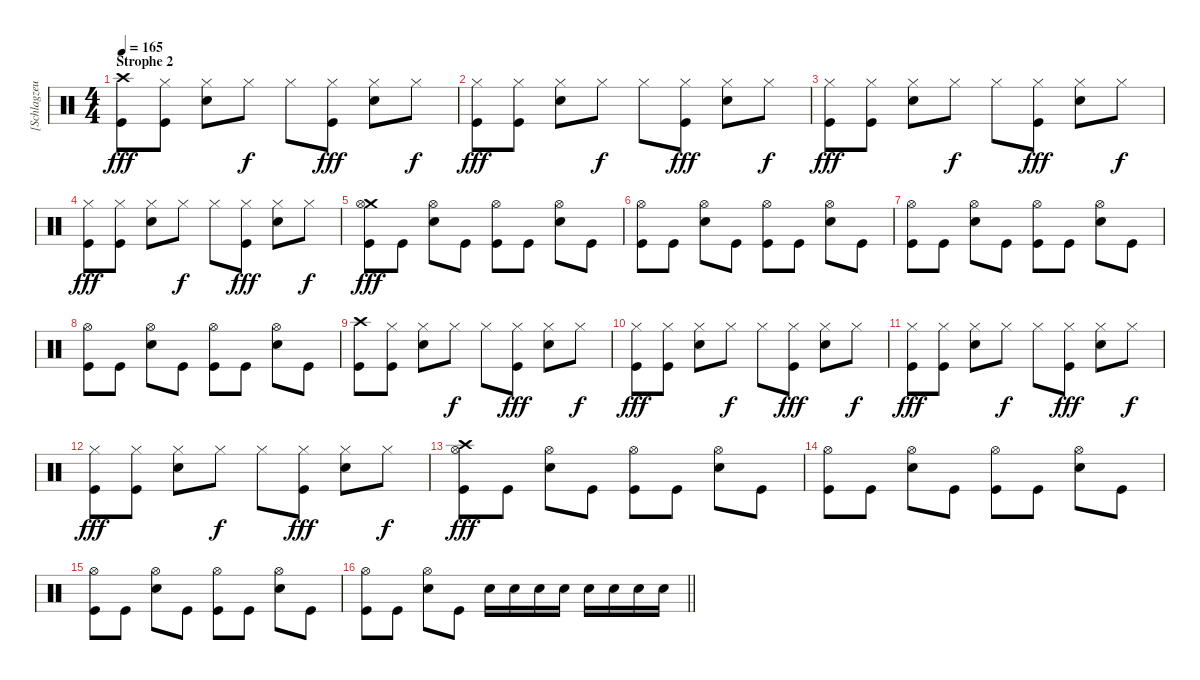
\track ("[Schlagzeug]" "[Schlagzeu") {instrument percussion}
\staff {score}
\articulation defaults
\ts (4 4)
\section ("" "Strophe 2")
\tempo 165
\clef neutral
\ks c
("Crash high (hit)" "Kick (hit)").8{dy fff} ("Hi-Hat (closed)" "Kick (hit)").8 ("Hi-Hat (closed)" "Electric Snare (hit)").8 "Hi-Hat (closed)".8{dy f} "Hi-Hat (closed)".8 ("Hi-Hat (closed)" "Kick (hit)").8{dy fff} ("Hi-Hat (closed)" "Electric Snare (hit)").8 "Hi-Hat (closed)".8{dy f} |
("Hi-Hat (closed)" "Kick (hit)").8{dy fff} ("Hi-Hat (closed)" "Kick (hit)").8 ("Hi-Hat (closed)" "Electric Snare (hit)").8 "Hi-Hat (closed)".8{dy f} "Hi-Hat (closed)".8 ("Hi-Hat (closed)" "Kick (hit)").8{dy fff} ("Hi-Hat (closed)" "Electric Snare (hit)").8 "Hi-Hat (closed)".8{dy f} |
("Hi-Hat (closed)" "Kick (hit)").8{dy fff} ("Hi-Hat (closed)" "Kick (hit)").8 ("Hi-Hat (closed)" "Electric Snare (hit)").8 "Hi-Hat (closed)".8{dy f} "Hi-Hat (closed)".8 ("Hi-Hat (closed)" "Kick (hit)").8{dy fff} ("Hi-Hat (closed)" "Electric Snare (hit)").8 "Hi-Hat (closed)".8{dy f} |
("Hi-Hat (closed)" "Kick (hit)").8{dy fff} ("Hi-Hat (closed)" "Kick (hit)").8 ("Hi-Hat (closed)" "Electric Snare (hit)").8 "Hi-Hat (closed)".8{dy f} "Hi-Hat (closed)".8 ("Hi-Hat (closed)" "Kick (hit)").8{dy fff} ("Hi-Hat (closed)" "Electric Snare (hit)").8 "Hi-Hat (closed)".8{dy f} |
("Crash medium (hit)" "Hi-Hat (open)" "Kick (hit)").8{dy fff} "Kick (hit)".8 ("Hi-Hat (open)" "Electric Snare (hit)").8 "Kick (hit)".8 ("Hi-Hat (open)" "Kick (hit)").8 "Kick (hit)".8 ("Hi-Hat (open)" "Electric Snare (hit)").8 "Kick (hit)".8 |
("Hi-Hat (open)" "Kick (hit)").8 "Kick (hit)".8 ("Hi-Hat (open)" "Electric Snare (hit)").8 "Kick (hit)".8 ("Hi-Hat (open)" "Kick (hit)").8 "Kick (hit)".8 ("Hi-Hat (open)" "Electric Snare (hit)").8 "Kick (hit)".8 |
("Hi-Hat (open)" "Kick (hit)").8 "Kick (hit)".8 ("Hi-Hat (open)" "Electric Snare (hit)").8 "Kick (hit)".8 ("Hi-Hat (open)" "Kick (hit)").8 "Kick (hit)".8 ("Hi-Hat (open)" "Electric Snare (hit)").8 "Kick (hit)".8 |
("Hi-Hat (open)" "Kick (hit)").8 "Kick (hit)".8 ("Hi-Hat (open)" "Electric Snare (hit)").8 "Kick (hit)".8 ("Hi-Hat (open)" "Kick (hit)").8 "Kick (hit)".8 ("Hi-Hat (open)" "Electric Snare (hit)").8 "Kick (hit)".8 |
("Crash high (hit)" "Kick (hit)").8 ("Hi-Hat (closed)" "Kick (hit)").8 ("Hi-Hat (closed)" "Electric Snare (hit)").8 "Hi-Hat (closed)".8{dy f} "Hi-Hat (closed)".8 ("Hi-Hat (closed)" "Kick (hit)").8{dy fff} ("Hi-Hat (closed)" "Electric Snare (hit)").8 "Hi-Hat (closed)".8{dy f} |
("Hi-Hat (closed)" "Kick (hit)").8{dy fff} ("Hi-Hat (closed)" "Kick (hit)").8 ("Hi-Hat (closed)" "Electric Snare (hit)").8 "Hi-Hat (closed)".8{dy f} "Hi-Hat (closed)".8 ("Hi-Hat (closed)" "Kick (hit)").8{dy fff} ("Hi-Hat (closed)" "Electric Snare (hit)").8 "Hi-Hat (closed)".8{dy f} |
("Hi-Hat (closed)" "Kick (hit)").8{dy fff} ("Hi-Hat (closed)" "Kick (hit)").8 ("Hi-Hat (closed)" "Electric Snare (hit)").8 "Hi-Hat (closed)".8{dy f} "Hi-Hat (closed)".8 ("Hi-Hat (closed)" "Kick (hit)").8{dy fff} ("Hi-Hat (closed)" "Electric Snare (hit)").8 "Hi-Hat (closed)".8{dy f} |
("Hi-Hat (closed)" "Kick (hit)").8{dy fff} ("Hi-Hat (closed)" "Kick (hit)").8 ("Hi-Hat (closed)" "Electric Snare (hit)").8 "Hi-Hat (closed)".8{dy f} "Hi-Hat (closed)".8 ("Hi-Hat (closed)" "Kick (hit)").8{dy fff} ("Hi-Hat (closed)" "Electric Snare (hit)").8 "Hi-Hat (closed)".8{dy f} |
("Hi-Hat (open)" "Crash high (hit)" "Kick (hit)").8{dy fff} "Kick (hit)".8 ("Hi-Hat (open)" "Electric Snare (hit)").8 "Kick (hit)".8 ("Hi-Hat (open)" "Kick (hit)").8 "Kick (hit)".8 ("Hi-Hat (open)" "Electric Snare (hit)").8 "Kick (hit)".8 |
("Hi-Hat (open)" "Kick (hit)").8 "Kick (hit)".8 ("Hi-Hat (open)" "Electric Snare (hit)").8 "Kick (hit)".8 ("Hi-Hat (open)" "Kick (hit)").8 "Kick (hit)".8 ("Hi-Hat (open)" "Electric Snare (hit)").8 "Kick (hit)".8 |
("Hi-Hat (open)" "Kick (hit)").8 "Kick (hit)".8 ("Hi-Hat (open)" "Electric Snare (hit)").8 "Kick (hit)".8 ("Hi-Hat (open)" "Kick (hit)").8 "Kick (hit)".8 ("Hi-Hat (open)" "Electric Snare (hit)").8 "Kick (hit)".8 |
\barLineRight lightlight
("Hi-Hat (open)" "Kick (hit)").8 "Kick (hit)".8 ("Hi-Hat (open)" "Electric Snare (hit)").8 "Kick (hit)".8 "Electric Snare (hit)".16 "Electric Snare (hit)".16 "Electric Snare (hit)".16 "Electric Snare (hit)".16 "Electric Snare (hit)".16 "Electric Snare (hit)".16 "Electric Snare (hit)".16 "Electric Snare (hit)".16
